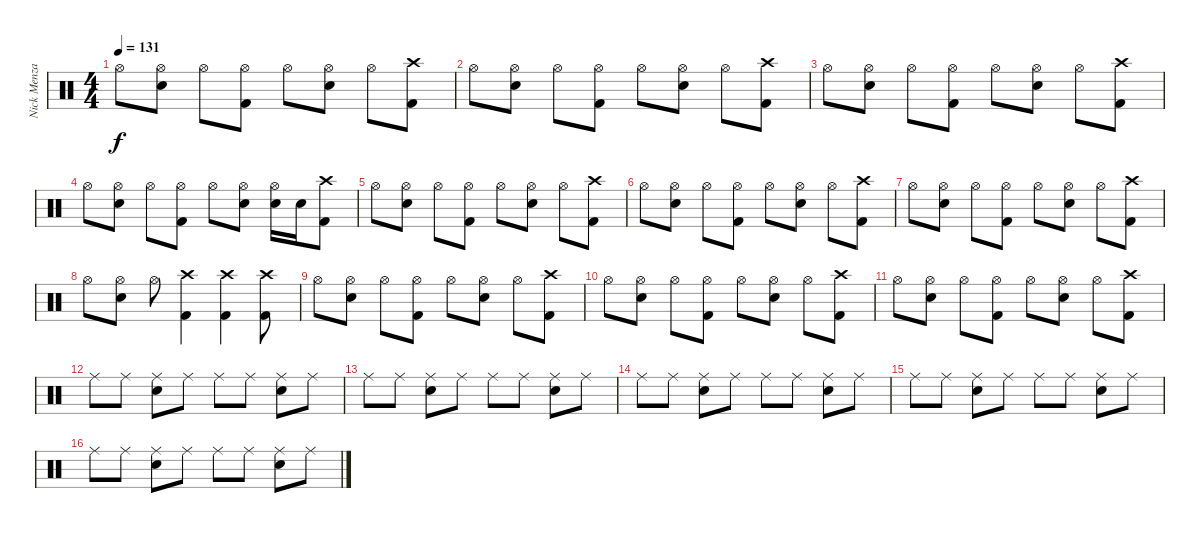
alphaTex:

\track ("Nick Menza" "Nick Menza") {instrument percussion}
\staff {score}
\articulation defaults
\ts (4 4)
\tempo 131
\clef neutral
\ks c "Hi-Hat (open)".8{dy f}
("Hi-Hat (open)" "Snare (hit) 2").8 "Hi-Hat (open)".8 ("Hi-Hat (open)" "Kick (hit) 2").8 "Hi-Hat (open)".8 ("Hi-Hat (open)" "Snare (hit) 2").8 "Hi-Hat (open)".8 ("Crash high (hit)" "Kick (hit) 2").8 |
"Hi-Hat (open)".8 ("Hi-Hat (open)" "Snare (hit) 2").8 "Hi-Hat (open)".8 ("Hi-Hat (open)" "Kick (hit) 2").8 "Hi-Hat (open)".8 ("Hi-Hat (open)" "Snare (hit) 2").8 "Hi-Hat (open)".8 ("Crash high (hit)" "Kick (hit) 2").8 |
"Hi-Hat (open)".8 ("Hi-Hat (open)" "Snare (hit) 2").8 "Hi-Hat (open)".8 ("Hi-Hat (open)" "Kick (hit) 2").8 "Hi-Hat (open)".8 ("Hi-Hat (open)" "Snare (hit) 2").8 "Hi-Hat (open)".8 ("Crash high (hit)" "Kick (hit) 2").8 |
"Hi-Hat (open)".8 ("Hi-Hat (open)" "Snare (hit) 2").8 "Hi-Hat (open)".8 ("Hi-Hat (open)" "Kick (hit) 2").8 "Hi-Hat (open)".8 ("Hi-Hat (open)" "Snare (hit) 2").8 ("Hi-Hat (open)" "Snare (hit) 2").16 "Snare (hit) 2".16 ("Crash high (hit)" "Kick (hit) 2").8 |
"Hi-Hat (open)".8 ("Hi-Hat (open)" "Snare (hit) 2").8 "Hi-Hat (open)".8 ("Hi-Hat (open)" "Kick (hit) 2").8 "Hi-Hat (open)".8 ("Hi-Hat (open)" "Snare (hit) 2").8 "Hi-Hat (open)".8 ("Crash high (hit)" "Kick (hit) 2").8 |
"Hi-Hat (open)".8 ("Hi-Hat (open)" "Snare (hit) 2").8 "Hi-Hat (open)".8 ("Hi-Hat (open)" "Kick (hit) 2").8 "Hi-Hat (open)".8 ("Hi-Hat (open)" "Snare (hit) 2").8 "Hi-Hat (open)".8 ("Crash high (hit)" "Kick (hit) 2").8 |
"Hi-Hat (open)".8 ("Hi-Hat (open)" "Snare (hit) 2").8 "Hi-Hat (open)".8 ("Hi-Hat (open)" "Kick (hit) 2").8 "Hi-Hat (open)".8 ("Hi-Hat (open)" "Snare (hit) 2").8 "Hi-Hat (open)".8 ("Crash high (hit)" "Kick (hit) 2").8 |
"Hi-Hat (open)".8 ("Hi-Hat (open)" "Snare (hit) 2").8 "Hi-Hat (open)".8 ("Crash high (hit)" "Kick (hit) 2").4 ("Crash high (hit)" "Kick (hit) 2").4 ("Crash high (hit)" "Kick (hit) 2").8 |
"Hi-Hat (open)".8 ("Hi-Hat (open)" "Snare (hit) 2").8 "Hi-Hat (open)".8 ("Hi-Hat (open)" "Kick (hit) 2").8 "Hi-Hat (open)".8 ("Hi-Hat (open)" "Snare (hit) 2").8 "Hi-Hat (open)".8 ("Crash high (hit)" "Kick (hit) 2").8 |
"Hi-Hat (open)".8 ("Hi-Hat (open)" "Snare (hit) 2").8 "Hi-Hat (open)".8 ("Hi-Hat (open)" "Kick (hit) 2").8 "Hi-Hat (open)".8 ("Hi-Hat (open)" "Snare (hit) 2").8 "Hi-Hat (open)".8 ("Crash high (hit)" "Kick (hit) 2").8 |
"Hi-Hat (open)".8 ("Hi-Hat (open)" "Snare (hit) 2").8 "Hi-Hat (open)".8 ("Hi-Hat (open)" "Kick (hit) 2").8 "Hi-Hat (open)".8 ("Hi-Hat (open)" "Snare (hit) 2").8 "Hi-Hat (open)".8 ("Crash high (hit)" "Kick (hit) 2").8 |
"Ride (middle)".8 "Ride (middle)".8 ("Ride (middle)" "Snare (hit) 2").8 "Ride (middle)".8 "Ride (middle)".8 "Ride (middle)".8 ("Ride (middle)" "Snare (hit) 2").8 "Ride (middle)".8 |
"Ride (middle)".8 "Ride (middle)".8 ("Ride (middle)" "Snare (hit) 2").8 "Ride (middle)".8 "Ride (middle)".8 "Ride (middle)".8 ("Ride (middle)" "Snare (hit) 2").8 "Ride (middle)".8 |
"Ride (middle)".8 "Ride (middle)".8 ("Ride (middle)" "Snare (hit) 2").8 "Ride (middle)".8 "Ride (middle)".8 "Ride (middle)".8 ("Ride (middle)" "Snare (hit) 2").8 "Ride (middle)".8 |
"Ride (middle)".8 "Ride (middle)".8 ("Ride (middle)" "Snare (hit) 2").8 "Ride (middle)".8 "Ride (middle)".8 "Ride (middle)".8 ("Ride (middle)" "Snare (hit) 2").8 "Ride (middle)".8 |
"Ride (middle)".8 "Ride (middle)".8 ("Ride (middle)" "Snare (hit) 2").8 "Ride (middle)".8 "Ride (middle)".8 "Ride (middle)".8 ("Ride (middle)" "Snare (hit) 2").8 "Ride (middle)".8
